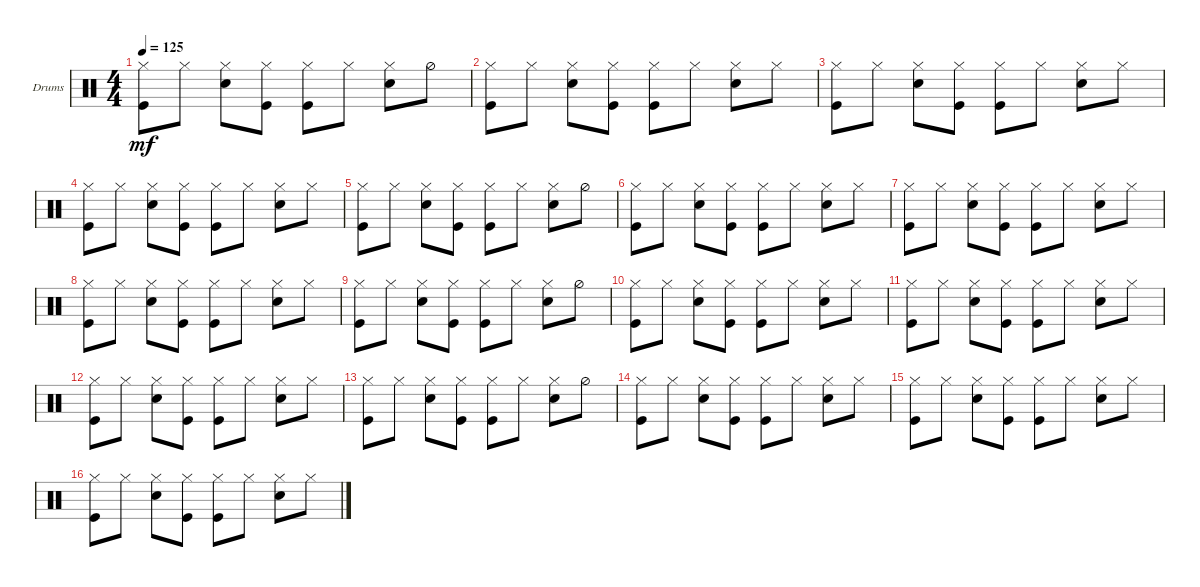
\defaultSystemsLayout 4
\bracketExtendMode groupsimilarinstruments
\firstSystemTrackNameOrientation horizontal
\otherSystemsTrackNameOrientation horizontal
\track ("Drumkit" "Drums") {instrument percussion}
\staff {score}
\articulation defaults
\ts (4 4)
\tempo 125
\clef neutral
\ks c
("Hi-Hat (closed)" "Kick (hit)").8{dy mf} "Hi-Hat (closed)".8 ("Hi-Hat (closed)" "Snare (hit) 2").8 ("Hi-Hat (closed)" "Kick (hit)").8 ("Hi-Hat (closed)" "Kick (hit)").8 "Hi-Hat (closed)".8 ("Hi-Hat (closed)" "Snare (hit) 2").8 "Hi-Hat (half)".8 |
("Hi-Hat (closed)" "Kick (hit)").8 "Hi-Hat (closed)".8 ("Hi-Hat (closed)" "Snare (hit) 2").8 ("Hi-Hat (closed)" "Kick (hit)").8 ("Hi-Hat (closed)" "Kick (hit)").8 "Hi-Hat (closed)".8 ("Hi-Hat (closed)" "Snare (hit) 2").8 "Hi-Hat (closed)".8 |
("Hi-Hat (closed)" "Kick (hit)").8 "Hi-Hat (closed)".8 ("Hi-Hat (closed)" "Snare (hit) 2").8 ("Hi-Hat (closed)" "Kick (hit)").8 ("Hi-Hat (closed)" "Kick (hit)").8 "Hi-Hat (closed)".8 ("Hi-Hat (closed)" "Snare (hit) 2").8 "Hi-Hat (closed)".8 |
("Hi-Hat (closed)" "Kick (hit)").8 "Hi-Hat (closed)".8 ("Hi-Hat (closed)" "Snare (hit) 2").8 ("Hi-Hat (closed)" "Kick (hit)").8 ("Hi-Hat (closed)" "Kick (hit)").8 "Hi-Hat (closed)".8 ("Hi-Hat (closed)" "Snare (hit) 2").8 "Hi-Hat (closed)".8 |
("Hi-Hat (closed)" "Kick (hit)").8 "Hi-Hat (closed)".8 ("Hi-Hat (closed)" "Snare (hit) 2").8 ("Hi-Hat (closed)" "Kick (hit)").8 ("Hi-Hat (closed)" "Kick (hit)").8 "Hi-Hat (closed)".8 ("Hi-Hat (closed)" "Snare (hit) 2").8 "Hi-Hat (half)".8 |
("Hi-Hat (closed)" "Kick (hit)").8 "Hi-Hat (closed)".8 ("Hi-Hat (closed)" "Snare (hit) 2").8 ("Hi-Hat (closed)" "Kick (hit)").8 ("Hi-Hat (closed)" "Kick (hit)").8 "Hi-Hat (closed)".8 ("Hi-Hat (closed)" "Snare (hit) 2").8 "Hi-Hat (closed)".8 |
("Hi-Hat (closed)" "Kick (hit)").8 "Hi-Hat (closed)".8 ("Hi-Hat (closed)" "Snare (hit) 2").8 ("Hi-Hat (closed)" "Kick (hit)").8 ("Hi-Hat (closed)" "Kick (hit)").8 "Hi-Hat (closed)".8 ("Hi-Hat (closed)" "Snare (hit) 2").8 "Hi-Hat (closed)".8 |
("Hi-Hat (closed)" "Kick (hit)").8 "Hi-Hat (closed)".8 ("Hi-Hat (closed)" "Snare (hit) 2").8 ("Hi-Hat (closed)" "Kick (hit)").8 ("Hi-Hat (closed)" "Kick (hit)").8 "Hi-Hat (closed)".8 ("Hi-Hat (closed)" "Snare (hit) 2").8 "Hi-Hat (closed)".8 |
("Hi-Hat (closed)" "Kick (hit)").8 "Hi-Hat (closed)".8 ("Hi-Hat (closed)" "Snare (hit) 2").8 ("Hi-Hat (closed)" "Kick (hit)").8 ("Hi-Hat (closed)" "Kick (hit)").8 "Hi-Hat (closed)".8 ("Hi-Hat (closed)" "Snare (hit) 2").8 "Hi-Hat (half)".8 |
("Hi-Hat (closed)" "Kick (hit)").8 "Hi-Hat (closed)".8 ("Hi-Hat (closed)" "Snare (hit) 2").8 ("Hi-Hat (closed)" "Kick (hit)").8 ("Hi-Hat (closed)" "Kick (hit)").8 "Hi-Hat (closed)".8 ("Hi-Hat (closed)" "Snare (hit) 2").8 "Hi-Hat (closed)".8 |
("Hi-Hat (closed)" "Kick (hit)").8 "Hi-Hat (closed)".8 ("Hi-Hat (closed)" "Snare (hit) 2").8 ("Hi-Hat (closed)" "Kick (hit)").8 ("Hi-Hat (closed)" "Kick (hit)").8 "Hi-Hat (closed)".8 ("Hi-Hat (closed)" "Snare (hit) 2").8 "Hi-Hat (closed)".8 |
("Hi-Hat (closed)" "Kick (hit)").8 "Hi-Hat (closed)".8 ("Hi-Hat (closed)" "Snare (hit) 2").8 ("Hi-Hat (closed)" "Kick (hit)").8 ("Hi-Hat (closed)" "Kick (hit)").8 "Hi-Hat (closed)".8 ("Hi-Hat (closed)" "Snare (hit) 2").8 "Hi-Hat (closed)".8 |
("Hi-Hat (closed)" "Kick (hit)").8 "Hi-Hat (closed)".8 ("Hi-Hat (closed)" "Snare (hit) 2").8 ("Hi-Hat (closed)" "Kick (hit)").8 ("Hi-Hat (closed)" "Kick (hit)").8 "Hi-Hat (closed)".8 ("Hi-Hat (closed)" "Snare (hit) 2").8 "Hi-Hat (half)".8 |
("Hi-Hat (closed)" "Kick (hit)").8 "Hi-Hat (closed)".8 ("Hi-Hat (closed)" "Snare (hit) 2").8 ("Hi-Hat (closed)" "Kick (hit)").8 ("Hi-Hat (closed)" "Kick (hit)").8 "Hi-Hat (closed)".8 ("Hi-Hat (closed)" "Snare (hit) 2").8 "Hi-Hat (closed)".8 |
("Hi-Hat (closed)" "Kick (hit)").8 "Hi-Hat (closed)".8 ("Hi-Hat (closed)" "Snare (hit) 2").8 ("Hi-Hat (closed)" "Kick (hit)").8 ("Hi-Hat (closed)" "Kick (hit)").8 "Hi-Hat (closed)".8 ("Hi-Hat (closed)" "Snare (hit) 2").8 "Hi-Hat (closed)".8 |
("Hi-Hat (closed)" "Kick (hit)").8 "Hi-Hat (closed)".8 ("Hi-Hat (closed)" "Snare (hit) 2").8 ("Hi-Hat (closed)" "Kick (hit)").8 ("Hi-Hat (closed)" "Kick (hit)").8 "Hi-Hat (closed)".8 ("Hi-Hat (closed)" "Snare (hit) 2").8 "Hi-Hat (closed)".8
